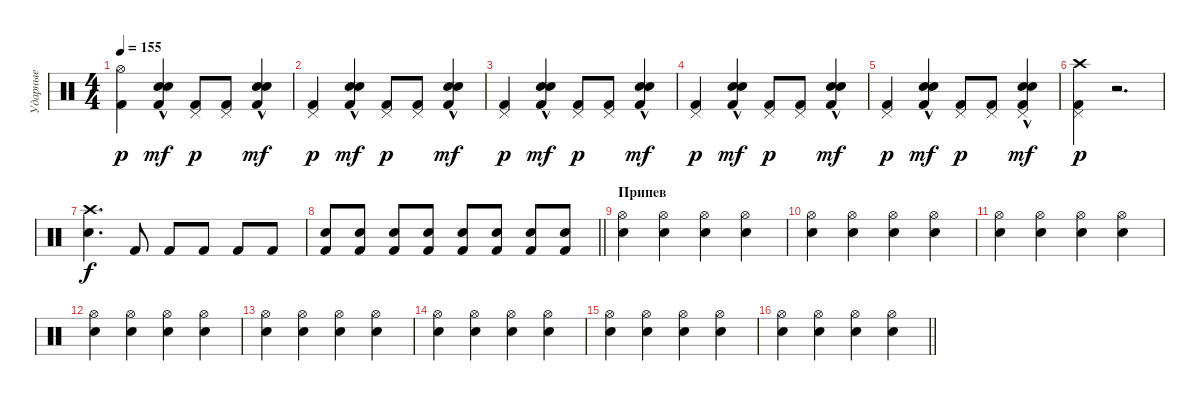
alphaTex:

\track ("Ударные" "Ударные") {instrument percussion}
\staff {score}
\articulation defaults
\ts (4 4)
\tempo 155
\clef neutral
\ks c
("Kick (hit) 2" "Hi-Hat (open)").4{dy p} ("Electric Snare (hit)"{hac} "Kick (hit) 2" "Snare (hit) 2"{hac}).4{dy mf} ("Pedal Hi-Hat (hit)" "Kick (hit) 2").8{dy p} ("Pedal Hi-Hat (hit)" "Kick (hit) 2").8 ("Electric Snare (hit)"{hac} "Kick (hit) 2" "Snare (hit) 2"{hac}).4{dy mf} |
("Pedal Hi-Hat (hit)" "Kick (hit) 2").4{dy p} ("Electric Snare (hit)"{hac} "Kick (hit) 2" "Snare (hit) 2"{hac}).4{dy mf} ("Pedal Hi-Hat (hit)" "Kick (hit) 2").8{dy p} ("Pedal Hi-Hat (hit)" "Kick (hit) 2").8 ("Electric Snare (hit)"{hac} "Kick (hit) 2" "Snare (hit) 2"{hac}).4{dy mf} |
("Pedal Hi-Hat (hit)" "Kick (hit) 2").4{dy p} ("Electric Snare (hit)"{hac} "Kick (hit) 2" "Snare (hit) 2"{hac}).4{dy mf} ("Pedal Hi-Hat (hit)" "Kick (hit) 2").8{dy p} ("Pedal Hi-Hat (hit)" "Kick (hit) 2").8 ("Electric Snare (hit)"{hac} "Kick (hit) 2" "Snare (hit) 2"{hac}).4{dy mf} |
("Pedal Hi-Hat (hit)" "Kick (hit) 2").4{dy p} ("Electric Snare (hit)"{hac} "Kick (hit) 2" "Snare (hit) 2"{hac}).4{dy mf} ("Pedal Hi-Hat (hit)" "Kick (hit) 2").8{dy p} ("Pedal Hi-Hat (hit)" "Kick (hit) 2").8 ("Electric Snare (hit)"{hac} "Kick (hit) 2" "Snare (hit) 2"{hac}).4{dy mf} |
("Kick (hit) 2" "Pedal Hi-Hat (hit)").4{dy p} ("Electric Snare (hit)"{hac} "Kick (hit) 2" "Snare (hit) 2"{hac}).4{dy mf} ("Pedal Hi-Hat (hit)" "Kick (hit) 2").8{dy p} ("Pedal Hi-Hat (hit)" "Kick (hit) 2").8 ("Electric Snare (hit)"{hac} "Pedal Hi-Hat (hit)" "Kick (hit) 2" "Snare (hit) 2"{hac}).4{dy mf} |
("Pedal Hi-Hat (hit)" "Crash high (hit)" "Kick (hit) 2").4{dy p} r.2{d} |
("Crash high (hit)" "Snare (hit) 2").4{d dy f} "Kick (hit) 2".8 "Kick (hit) 2".8 "Kick (hit) 2".8 "Kick (hit) 2".8 "Kick (hit) 2".8 |
\barLineRight lightlight
("Snare (hit) 2" "Kick (hit) 2").8 ("Snare (hit) 2" "Kick (hit) 2").8 ("Snare (hit) 2" "Kick (hit) 2").8 ("Snare (hit) 2" "Kick (hit) 2").8 ("Snare (hit) 2" "Kick (hit) 2").8 ("Snare (hit) 2" "Kick (hit) 2").8 ("Snare (hit) 2" "Kick (hit) 2").8 ("Snare (hit) 2" "Kick (hit) 2").8 |
\section ("" "Припев")
("Hi-Hat (open)" "Electric Snare (hit)").4 ("Hi-Hat (open)" "Electric Snare (hit)").4 ("Hi-Hat (open)" "Electric Snare (hit)").4 ("Hi-Hat (open)" "Electric Snare (hit)").4 |
("Hi-Hat (open)" "Electric Snare (hit)").4 ("Hi-Hat (open)" "Electric Snare (hit)").4 ("Hi-Hat (open)" "Electric Snare (hit)").4 ("Hi-Hat (open)" "Electric Snare (hit)").4 |
("Hi-Hat (open)" "Electric Snare (hit)").4 ("Hi-Hat (open)" "Electric Snare (hit)").4 ("Hi-Hat (open)" "Electric Snare (hit)").4 ("Hi-Hat (open)" "Electric Snare (hit)").4 |
("Hi-Hat (open)" "Electric Snare (hit)").4 ("Hi-Hat (open)" "Electric Snare (hit)").4 ("Hi-Hat (open)" "Electric Snare (hit)").4 ("Hi-Hat (open)" "Electric Snare (hit)").4 |
("Hi-Hat (open)" "Electric Snare (hit)").4 ("Hi-Hat (open)" "Electric Snare (hit)").4 ("Hi-Hat (open)" "Electric Snare (hit)").4 ("Hi-Hat (open)" "Electric Snare (hit)").4 |
("Hi-Hat (open)" "Electric Snare (hit)").4 ("Hi-Hat (open)" "Electric Snare (hit)").4 ("Hi-Hat (open)" "Electric Snare (hit)").4 ("Hi-Hat (open)" "Electric Snare (hit)").4 |
("Hi-Hat (open)" "Electric Snare (hit)").4 ("Hi-Hat (open)" "Electric Snare (hit)").4 ("Hi-Hat (open)" "Electric Snare (hit)").4 ("Hi-Hat (open)" "Electric Snare (hit)").4 |
\barLineRight lightlight
("Hi-Hat (open)" "Electric Snare (hit)").4 ("Hi-Hat (open)" "Electric Snare (hit)").4 ("Hi-Hat (open)" "Electric Snare (hit)").4 ("Hi-Hat (open)" "Electric Snare (hit)").4
